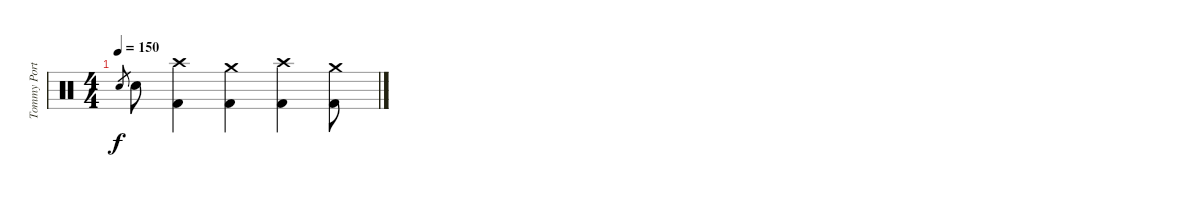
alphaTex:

\track ("Tommy Portino - Drums" "Tommy Port") {instrument percussion}
\staff {score}
\articulation defaults
\ts (4 4)
\tempo 150
\clef neutral
\ks c "Electric Snare (hit)".8{gr dy f} "Electric Snare (hit)".8
("Crash high (hit)" "Kick (hit) 2").4 ("Crash medium (hit)" "Kick (hit) 2").4 ("Crash high (hit)" "Kick (hit) 2").4 ("Crash medium (hit)" "Kick (hit) 2").8
